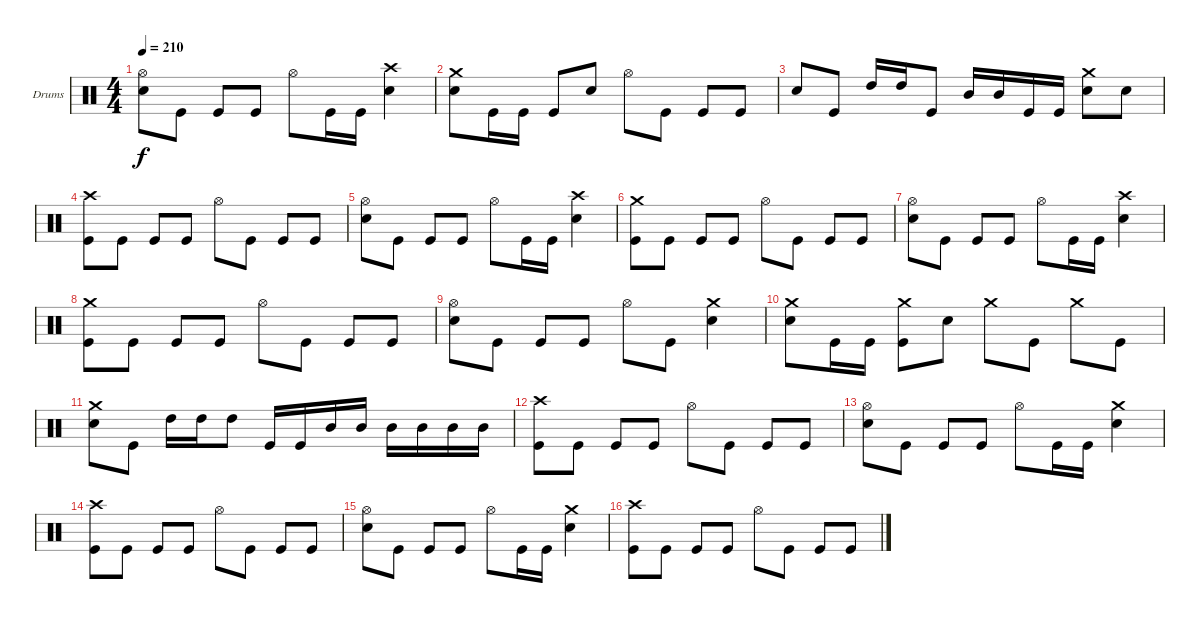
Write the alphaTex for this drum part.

\bracketExtendMode groupsimilarinstruments
\firstSystemTrackNameOrientation horizontal
\otherSystemsTrackNameOrientation horizontal
\track ("Drumkit" "Drums") {instrument percussion}
\staff {score}
\articulation defaults
\ts (4 4)
\tempo 210
\clef neutral
\ks c
("Hi-Hat (open)" "Snare (hit) 2").8{dy f} "Kick (hit)".8 "Kick (hit)".8 "Kick (hit)".8 "Hi-Hat (open)".8 "Kick (hit)".16 "Kick (hit)".16 ("Crash high (hit)" "Snare (hit) 2").4 |
("Crash medium (hit)" "Snare (hit) 2").8 "Kick (hit)".16 "Kick (hit)".16 "Kick (hit)".8 "Snare (hit) 2".8 "Hi-Hat (open)".8 "Kick (hit)".8 "Kick (hit)".8 "Kick (hit)".8 |
"Snare (hit) 2".8 "Kick (hit)".8 "High Tom (hit)".16 "High Tom (hit)".16 "Kick (hit)".8 "Mid Tom (hit)".16 "Mid Tom (hit)".16 "Kick (hit)".16 "Kick (hit)".16 ("Crash medium (hit)" "Snare (hit) 2").8 "Snare (hit) 2".8 |
("Crash high (hit)" "Kick (hit)").8 "Kick (hit)".8 "Kick (hit)".8 "Kick (hit)".8 "Hi-Hat (open)".8 "Kick (hit)".8 "Kick (hit)".8 "Kick (hit)".8 |
("Hi-Hat (open)" "Snare (hit) 2").8 "Kick (hit)".8 "Kick (hit)".8 "Kick (hit)".8 "Hi-Hat (open)".8 "Kick (hit)".16 "Kick (hit)".16 ("Crash high (hit)" "Snare (hit) 2").4 |
("Crash medium (hit)" "Kick (hit)").8 "Kick (hit)".8 "Kick (hit)".8 "Kick (hit)".8 "Hi-Hat (open)".8 "Kick (hit)".8 "Kick (hit)".8 "Kick (hit)".8 |
("Hi-Hat (open)" "Snare (hit) 2").8 "Kick (hit)".8 "Kick (hit)".8 "Kick (hit)".8 "Hi-Hat (open)".8 "Kick (hit)".16 "Kick (hit)".16 ("Crash high (hit)" "Snare (hit) 2").4 |
("Crash medium (hit)" "Kick (hit)").8 "Kick (hit)".8 "Kick (hit)".8 "Kick (hit)".8 "Hi-Hat (open)".8 "Kick (hit)".8 "Kick (hit)".8 "Kick (hit)".8 |
("Hi-Hat (open)" "Snare (hit) 2").8 "Kick (hit)".8 "Kick (hit)".8 "Kick (hit)".8 "Hi-Hat (open)".8 "Kick (hit)".8 ("Crash medium (hit)" "Snare (hit) 2").4 |
("Crash medium (hit)" "Snare (hit) 2").8 "Kick (hit)".16 "Kick (hit)".16 ("Crash medium (hit)" "Kick (hit)").8 "Snare (hit) 2".8 "Crash medium (hit)".8 "Kick (hit)".8 "Crash medium (hit)".8 "Kick (hit)".8 |
("Crash medium (hit)" "Snare (hit) 2").8 "Kick (hit)".8 "High Tom (hit)".16 "High Tom (hit)".16 "High Tom (hit)".8 "Kick (hit)".16 "Kick (hit)".16 "Mid Tom (hit)".16 "Mid Tom (hit)".16 "Mid Tom (hit)".16 "Mid Tom (hit)".16 "Mid Tom (hit)".16 "Mid Tom (hit)".16 |
("Crash high (hit)" "Kick (hit)").8 "Kick (hit)".8 "Kick (hit)".8 "Kick (hit)".8 "Hi-Hat (open)".8 "Kick (hit)".8 "Kick (hit)".8 "Kick (hit)".8 |
("Hi-Hat (open)" "Snare (hit) 2").8 "Kick (hit)".8 "Kick (hit)".8 "Kick (hit)".8 "Hi-Hat (open)".8 "Kick (hit)".16 "Kick (hit)".16 ("Crash medium (hit)" "Snare (hit) 2").4 |
("Crash high (hit)" "Kick (hit)").8 "Kick (hit)".8 "Kick (hit)".8 "Kick (hit)".8 "Hi-Hat (open)".8 "Kick (hit)".8 "Kick (hit)".8 "Kick (hit)".8 |
("Hi-Hat (open)" "Snare (hit) 2").8 "Kick (hit)".8 "Kick (hit)".8 "Kick (hit)".8 "Hi-Hat (open)".8 "Kick (hit)".16 "Kick (hit)".16 ("Crash medium (hit)" "Snare (hit) 2").4 |
("Crash high (hit)" "Kick (hit)").8 "Kick (hit)".8 "Kick (hit)".8 "Kick (hit)".8 "Hi-Hat (open)".8 "Kick (hit)".8 "Kick (hit)".8 "Kick (hit)".8
